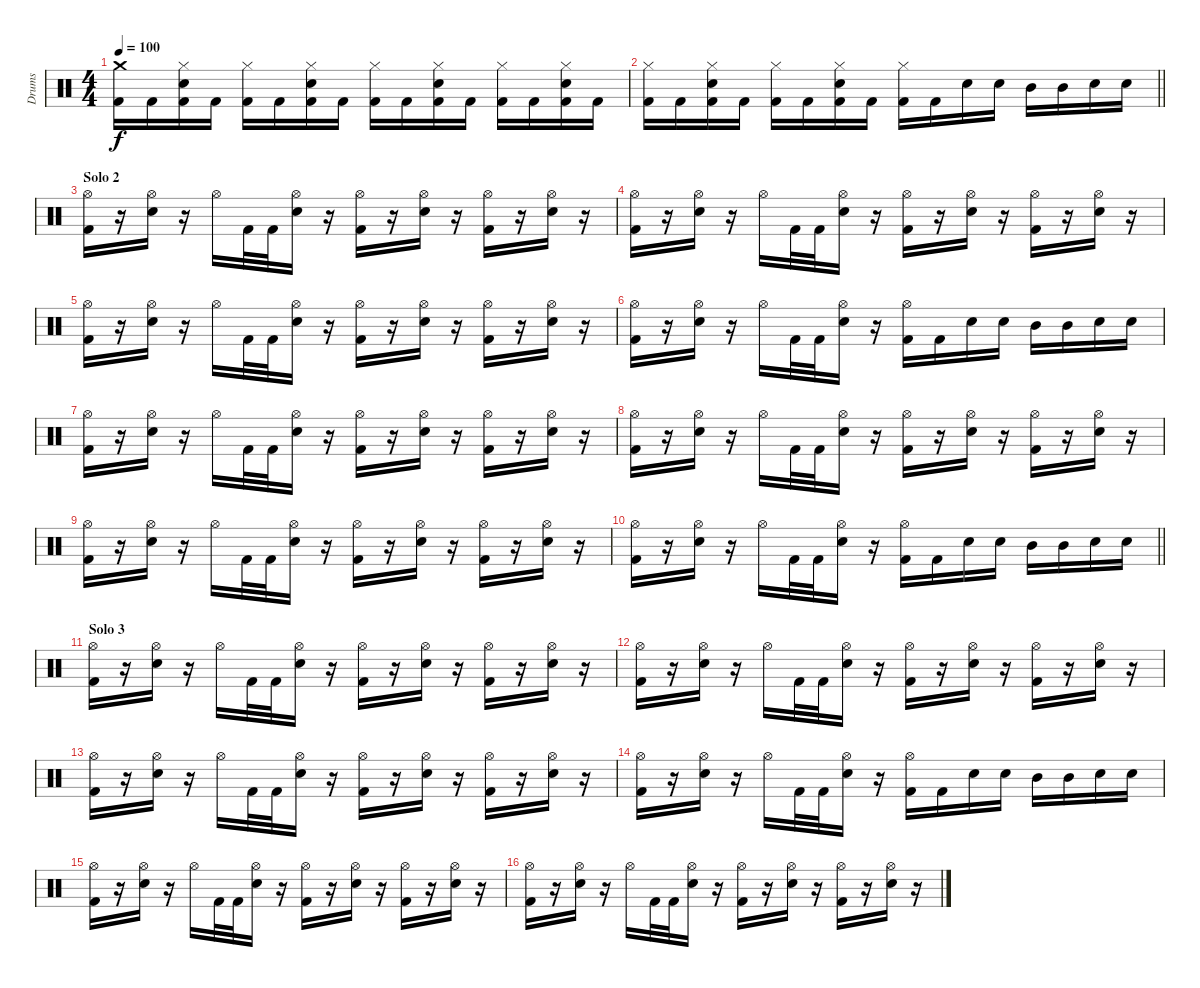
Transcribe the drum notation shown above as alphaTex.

\track ("Drums" "Drums") {instrument percussion}
\staff {score}
\articulation defaults
\ts (4 4)
\tempo 100
\clef neutral
\ks c
("Crash medium (hit)" "Kick (hit) 2").16{dy f} "Kick (hit) 2".16 ("Hi-Hat (closed)" "Snare (hit) 2" "Kick (hit) 2").16 "Kick (hit) 2".16 ("Hi-Hat (closed)" "Kick (hit) 2").16 "Kick (hit) 2".16 ("Hi-Hat (closed)" "Snare (hit) 2" "Kick (hit) 2").16 "Kick (hit) 2".16 ("Hi-Hat (closed)" "Kick (hit) 2").16 "Kick (hit) 2".16 ("Hi-Hat (closed)" "Snare (hit) 2" "Kick (hit) 2").16 "Kick (hit) 2".16 ("Hi-Hat (closed)" "Kick (hit) 2").16 "Kick (hit) 2".16 ("Hi-Hat (closed)" "Snare (hit) 2" "Kick (hit) 2").16 "Kick (hit) 2".16 |
\barLineRight lightlight
("Hi-Hat (closed)" "Kick (hit) 2").16 "Kick (hit) 2".16 ("Hi-Hat (closed)" "Snare (hit) 2" "Kick (hit) 2").16 "Kick (hit) 2".16 ("Hi-Hat (closed)" "Kick (hit) 2").16 "Kick (hit) 2".16 ("Hi-Hat (closed)" "Snare (hit) 2" "Kick (hit) 2").16 "Kick (hit) 2".16 ("Hi-Hat (closed)" "Kick (hit) 2").16 "Kick (hit) 2".16 "Snare (hit) 2".16 "Snare (hit) 2".16 "Mid Tom (hit)".16 "Mid Tom (hit)".16 "Snare (hit) 2".16 "Snare (hit) 2".16 |
\section ("" "Solo 2")
("Hi-Hat (open)" "Kick (hit) 2").16 r.16 ("Hi-Hat (open)" "Snare (hit) 2").16 r.16 "Hi-Hat (open)".16 "Kick (hit) 2".32 "Kick (hit) 2".32 ("Hi-Hat (open)" "Snare (hit) 2").16 r.16 ("Hi-Hat (open)" "Kick (hit) 2").16 r.16 ("Hi-Hat (open)" "Snare (hit) 2").16 r.16 ("Hi-Hat (open)" "Kick (hit) 2").16 r.16 ("Hi-Hat (open)" "Snare (hit) 2").16 r.16 |
("Hi-Hat (open)" "Kick (hit) 2").16 r.16 ("Hi-Hat (open)" "Snare (hit) 2").16 r.16 "Hi-Hat (open)".16 "Kick (hit) 2".32 "Kick (hit) 2".32 ("Hi-Hat (open)" "Snare (hit) 2").16 r.16 ("Hi-Hat (open)" "Kick (hit) 2").16 r.16 ("Hi-Hat (open)" "Snare (hit) 2").16 r.16 ("Hi-Hat (open)" "Kick (hit) 2").16 r.16 ("Hi-Hat (open)" "Snare (hit) 2").16 r.16 |
("Hi-Hat (open)" "Kick (hit) 2").16 r.16 ("Hi-Hat (open)" "Snare (hit) 2").16 r.16 "Hi-Hat (open)".16 "Kick (hit) 2".32 "Kick (hit) 2".32 ("Hi-Hat (open)" "Snare (hit) 2").16 r.16 ("Hi-Hat (open)" "Kick (hit) 2").16 r.16 ("Hi-Hat (open)" "Snare (hit) 2").16 r.16 ("Hi-Hat (open)" "Kick (hit) 2").16 r.16 ("Hi-Hat (open)" "Snare (hit) 2").16 r.16 |
("Hi-Hat (open)" "Kick (hit) 2").16 r.16 ("Hi-Hat (open)" "Snare (hit) 2").16 r.16 "Hi-Hat (open)".16 "Kick (hit) 2".32 "Kick (hit) 2".32 ("Hi-Hat (open)" "Snare (hit) 2").16 r.16 ("Hi-Hat (open)" "Kick (hit) 2").16 "Kick (hit) 2".16 "Snare (hit) 2".16 "Snare (hit) 2".16 "Mid Tom (hit)".16 "Mid Tom (hit)".16 "Snare (hit) 2".16 "Snare (hit) 2".16 |
("Hi-Hat (open)" "Kick (hit) 2").16 r.16 ("Hi-Hat (open)" "Snare (hit) 2").16 r.16 "Hi-Hat (open)".16 "Kick (hit) 2".32 "Kick (hit) 2".32 ("Hi-Hat (open)" "Snare (hit) 2").16 r.16 ("Hi-Hat (open)" "Kick (hit) 2").16 r.16 ("Hi-Hat (open)" "Snare (hit) 2").16 r.16 ("Hi-Hat (open)" "Kick (hit) 2").16 r.16 ("Hi-Hat (open)" "Snare (hit) 2").16 r.16 |
("Hi-Hat (open)" "Kick (hit) 2").16 r.16 ("Hi-Hat (open)" "Snare (hit) 2").16 r.16 "Hi-Hat (open)".16 "Kick (hit) 2".32 "Kick (hit) 2".32 ("Hi-Hat (open)" "Snare (hit) 2").16 r.16 ("Hi-Hat (open)" "Kick (hit) 2").16 r.16 ("Hi-Hat (open)" "Snare (hit) 2").16 r.16 ("Hi-Hat (open)" "Kick (hit) 2").16 r.16 ("Hi-Hat (open)" "Snare (hit) 2").16 r.16 |
("Hi-Hat (open)" "Kick (hit) 2").16 r.16 ("Hi-Hat (open)" "Snare (hit) 2").16 r.16 "Hi-Hat (open)".16 "Kick (hit) 2".32 "Kick (hit) 2".32 ("Hi-Hat (open)" "Snare (hit) 2").16 r.16 ("Hi-Hat (open)" "Kick (hit) 2").16 r.16 ("Hi-Hat (open)" "Snare (hit) 2").16 r.16 ("Hi-Hat (open)" "Kick (hit) 2").16 r.16 ("Hi-Hat (open)" "Snare (hit) 2").16 r.16 |
\barLineRight lightlight
("Hi-Hat (open)" "Kick (hit) 2").16 r.16 ("Hi-Hat (open)" "Snare (hit) 2").16 r.16 "Hi-Hat (open)".16 "Kick (hit) 2".32 "Kick (hit) 2".32 ("Hi-Hat (open)" "Snare (hit) 2").16 r.16 ("Hi-Hat (open)" "Kick (hit) 2").16 "Kick (hit) 2".16 "Snare (hit) 2".16 "Snare (hit) 2".16 "Mid Tom (hit)".16 "Mid Tom (hit)".16 "Snare (hit) 2".16 "Snare (hit) 2".16 |
\section ("" "Solo 3")
("Hi-Hat (open)" "Kick (hit) 2").16 r.16 ("Hi-Hat (open)" "Snare (hit) 2").16 r.16 "Hi-Hat (open)".16 "Kick (hit) 2".32 "Kick (hit) 2".32 ("Hi-Hat (open)" "Snare (hit) 2").16 r.16 ("Hi-Hat (open)" "Kick (hit) 2").16 r.16 ("Hi-Hat (open)" "Snare (hit) 2").16 r.16 ("Hi-Hat (open)" "Kick (hit) 2").16 r.16 ("Hi-Hat (open)" "Snare (hit) 2").16 r.16 |
("Hi-Hat (open)" "Kick (hit) 2").16 r.16 ("Hi-Hat (open)" "Snare (hit) 2").16 r.16 "Hi-Hat (open)".16 "Kick (hit) 2".32 "Kick (hit) 2".32 ("Hi-Hat (open)" "Snare (hit) 2").16 r.16 ("Hi-Hat (open)" "Kick (hit) 2").16 r.16 ("Hi-Hat (open)" "Snare (hit) 2").16 r.16 ("Hi-Hat (open)" "Kick (hit) 2").16 r.16 ("Hi-Hat (open)" "Snare (hit) 2").16 r.16 |
("Hi-Hat (open)" "Kick (hit) 2").16 r.16 ("Hi-Hat (open)" "Snare (hit) 2").16 r.16 "Hi-Hat (open)".16 "Kick (hit) 2".32 "Kick (hit) 2".32 ("Hi-Hat (open)" "Snare (hit) 2").16 r.16 ("Hi-Hat (open)" "Kick (hit) 2").16 r.16 ("Hi-Hat (open)" "Snare (hit) 2").16 r.16 ("Hi-Hat (open)" "Kick (hit) 2").16 r.16 ("Hi-Hat (open)" "Snare (hit) 2").16 r.16 |
("Hi-Hat (open)" "Kick (hit) 2").16 r.16 ("Hi-Hat (open)" "Snare (hit) 2").16 r.16 "Hi-Hat (open)".16 "Kick (hit) 2".32 "Kick (hit) 2".32 ("Hi-Hat (open)" "Snare (hit) 2").16 r.16 ("Hi-Hat (open)" "Kick (hit) 2").16 "Kick (hit) 2".16 "Snare (hit) 2".16 "Snare (hit) 2".16 "Mid Tom (hit)".16 "Mid Tom (hit)".16 "Snare (hit) 2".16 "Snare (hit) 2".16 |
("Hi-Hat (open)" "Kick (hit) 2").16 r.16 ("Hi-Hat (open)" "Snare (hit) 2").16 r.16 "Hi-Hat (open)".16 "Kick (hit) 2".32 "Kick (hit) 2".32 ("Hi-Hat (open)" "Snare (hit) 2").16 r.16 ("Hi-Hat (open)" "Kick (hit) 2").16 r.16 ("Hi-Hat (open)" "Snare (hit) 2").16 r.16 ("Hi-Hat (open)" "Kick (hit) 2").16 r.16 ("Hi-Hat (open)" "Snare (hit) 2").16 r.16 |
("Hi-Hat (open)" "Kick (hit) 2").16 r.16 ("Hi-Hat (open)" "Snare (hit) 2").16 r.16 "Hi-Hat (open)".16 "Kick (hit) 2".32 "Kick (hit) 2".32 ("Hi-Hat (open)" "Snare (hit) 2").16 r.16 ("Hi-Hat (open)" "Kick (hit) 2").16 r.16 ("Hi-Hat (open)" "Snare (hit) 2").16 r.16 ("Hi-Hat (open)" "Kick (hit) 2").16 r.16 ("Hi-Hat (open)" "Snare (hit) 2").16 r.16
